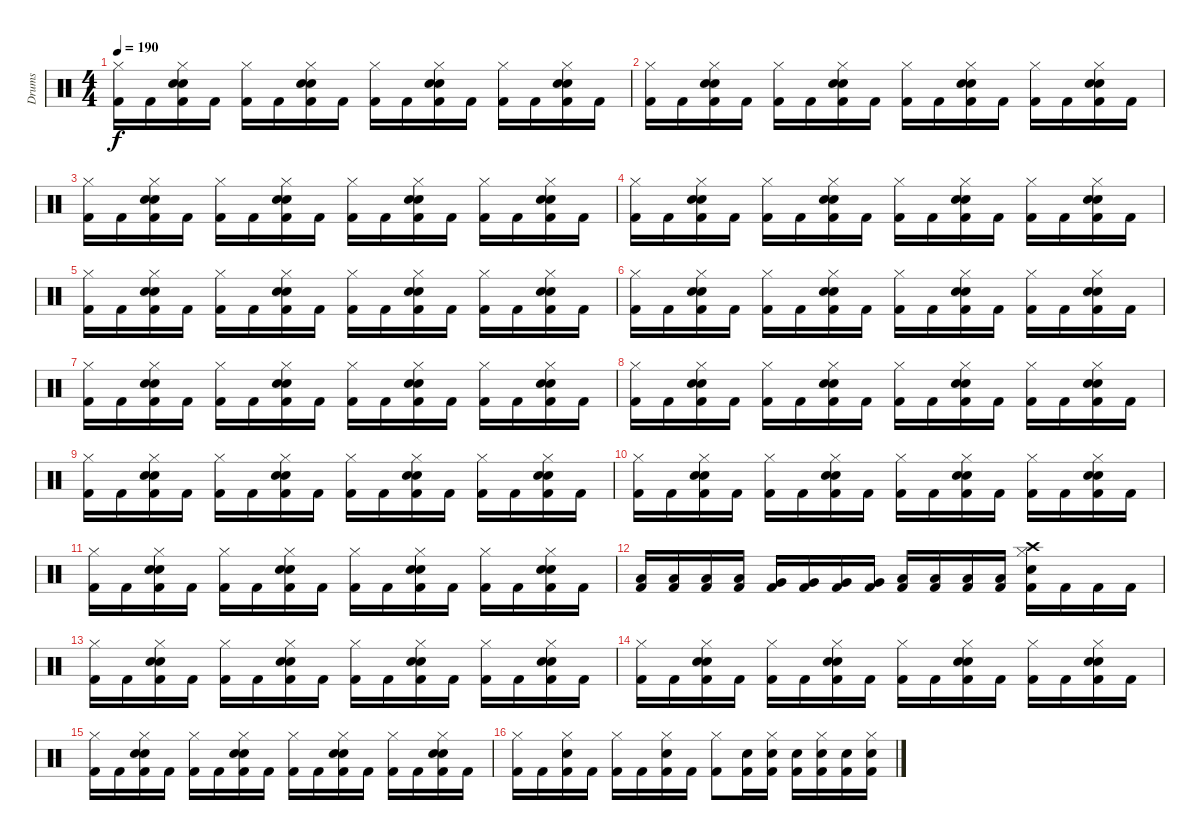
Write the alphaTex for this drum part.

\track ("Drums" "Drums") {instrument percussion}
\staff {score}
\articulation defaults
\ts (4 4)
\tempo 190
\clef neutral
\ks c
("Hi-Hat (closed)" "Kick (hit) 2").16{dy f} "Kick (hit) 2".16 ("Snare (hit) 2" "Hi-Hat (closed)" "Snare (hit) 2" "Kick (hit) 2").16 "Kick (hit) 2".16 ("Hi-Hat (closed)" "Kick (hit) 2").16 "Kick (hit) 2".16 ("Snare (hit) 2" "Hi-Hat (closed)" "Snare (hit) 2" "Kick (hit) 2").16 "Kick (hit) 2".16 ("Hi-Hat (closed)" "Kick (hit) 2").16 "Kick (hit) 2".16 ("Snare (hit) 2" "Hi-Hat (closed)" "Snare (hit) 2" "Kick (hit) 2").16 "Kick (hit) 2".16 ("Hi-Hat (closed)" "Kick (hit) 2").16 "Kick (hit) 2".16 ("Snare (hit) 2" "Hi-Hat (closed)" "Snare (hit) 2" "Kick (hit) 2").16 "Kick (hit) 2".16 |
("Hi-Hat (closed)" "Kick (hit) 2").16 "Kick (hit) 2".16 ("Snare (hit) 2" "Hi-Hat (closed)" "Snare (hit) 2" "Kick (hit) 2").16 "Kick (hit) 2".16 ("Hi-Hat (closed)" "Kick (hit) 2").16 "Kick (hit) 2".16 ("Snare (hit) 2" "Hi-Hat (closed)" "Snare (hit) 2" "Kick (hit) 2").16 "Kick (hit) 2".16 ("Hi-Hat (closed)" "Kick (hit) 2").16 "Kick (hit) 2".16 ("Snare (hit) 2" "Hi-Hat (closed)" "Snare (hit) 2" "Kick (hit) 2").16 "Kick (hit) 2".16 ("Hi-Hat (closed)" "Kick (hit) 2").16 "Kick (hit) 2".16 ("Snare (hit) 2" "Hi-Hat (closed)" "Snare (hit) 2" "Kick (hit) 2").16 "Kick (hit) 2".16 |
("Hi-Hat (closed)" "Kick (hit) 2").16 "Kick (hit) 2".16 ("Snare (hit) 2" "Hi-Hat (closed)" "Snare (hit) 2" "Kick (hit) 2").16 "Kick (hit) 2".16 ("Hi-Hat (closed)" "Kick (hit) 2").16 "Kick (hit) 2".16 ("Snare (hit) 2" "Hi-Hat (closed)" "Snare (hit) 2" "Kick (hit) 2").16 "Kick (hit) 2".16 ("Hi-Hat (closed)" "Kick (hit) 2").16 "Kick (hit) 2".16 ("Snare (hit) 2" "Hi-Hat (closed)" "Snare (hit) 2" "Kick (hit) 2").16 "Kick (hit) 2".16 ("Hi-Hat (closed)" "Kick (hit) 2").16 "Kick (hit) 2".16 ("Snare (hit) 2" "Hi-Hat (closed)" "Snare (hit) 2" "Kick (hit) 2").16 "Kick (hit) 2".16 |
("Hi-Hat (closed)" "Kick (hit) 2").16 "Kick (hit) 2".16 ("Snare (hit) 2" "Hi-Hat (closed)" "Snare (hit) 2" "Kick (hit) 2").16 "Kick (hit) 2".16 ("Hi-Hat (closed)" "Kick (hit) 2").16 "Kick (hit) 2".16 ("Snare (hit) 2" "Hi-Hat (closed)" "Snare (hit) 2" "Kick (hit) 2").16 "Kick (hit) 2".16 ("Hi-Hat (closed)" "Kick (hit) 2").16 "Kick (hit) 2".16 ("Snare (hit) 2" "Hi-Hat (closed)" "Snare (hit) 2" "Kick (hit) 2").16 "Kick (hit) 2".16 ("Hi-Hat (closed)" "Kick (hit) 2").16 "Kick (hit) 2".16 ("Snare (hit) 2" "Hi-Hat (closed)" "Snare (hit) 2" "Kick (hit) 2").16 "Kick (hit) 2".16 |
("Hi-Hat (closed)" "Kick (hit) 2").16 "Kick (hit) 2".16 ("Snare (hit) 2" "Hi-Hat (closed)" "Snare (hit) 2" "Kick (hit) 2").16 "Kick (hit) 2".16 ("Hi-Hat (closed)" "Kick (hit) 2").16 "Kick (hit) 2".16 ("Snare (hit) 2" "Hi-Hat (closed)" "Snare (hit) 2" "Kick (hit) 2").16 "Kick (hit) 2".16 ("Hi-Hat (closed)" "Kick (hit) 2").16 "Kick (hit) 2".16 ("Snare (hit) 2" "Hi-Hat (closed)" "Snare (hit) 2" "Kick (hit) 2").16 "Kick (hit) 2".16 ("Hi-Hat (closed)" "Kick (hit) 2").16 "Kick (hit) 2".16 ("Snare (hit) 2" "Hi-Hat (closed)" "Snare (hit) 2" "Kick (hit) 2").16 "Kick (hit) 2".16 |
("Hi-Hat (closed)" "Kick (hit) 2").16 "Kick (hit) 2".16 ("Snare (hit) 2" "Hi-Hat (closed)" "Snare (hit) 2" "Kick (hit) 2").16 "Kick (hit) 2".16 ("Hi-Hat (closed)" "Kick (hit) 2").16 "Kick (hit) 2".16 ("Snare (hit) 2" "Hi-Hat (closed)" "Snare (hit) 2" "Kick (hit) 2").16 "Kick (hit) 2".16 ("Hi-Hat (closed)" "Kick (hit) 2").16 "Kick (hit) 2".16 ("Snare (hit) 2" "Hi-Hat (closed)" "Snare (hit) 2" "Kick (hit) 2").16 "Kick (hit) 2".16 ("Hi-Hat (closed)" "Kick (hit) 2").16 "Kick (hit) 2".16 ("Snare (hit) 2" "Hi-Hat (closed)" "Snare (hit) 2" "Kick (hit) 2").16 "Kick (hit) 2".16 |
("Hi-Hat (closed)" "Kick (hit) 2").16 "Kick (hit) 2".16 ("Snare (hit) 2" "Hi-Hat (closed)" "Snare (hit) 2" "Kick (hit) 2").16 "Kick (hit) 2".16 ("Hi-Hat (closed)" "Kick (hit) 2").16 "Kick (hit) 2".16 ("Snare (hit) 2" "Hi-Hat (closed)" "Snare (hit) 2" "Kick (hit) 2").16 "Kick (hit) 2".16 ("Hi-Hat (closed)" "Kick (hit) 2").16 "Kick (hit) 2".16 ("Snare (hit) 2" "Hi-Hat (closed)" "Snare (hit) 2" "Kick (hit) 2").16 "Kick (hit) 2".16 ("Hi-Hat (closed)" "Kick (hit) 2").16 "Kick (hit) 2".16 ("Snare (hit) 2" "Hi-Hat (closed)" "Snare (hit) 2" "Kick (hit) 2").16 "Kick (hit) 2".16 |
("Hi-Hat (closed)" "Kick (hit) 2").16 "Kick (hit) 2".16 ("Snare (hit) 2" "Hi-Hat (closed)" "Snare (hit) 2" "Kick (hit) 2").16 "Kick (hit) 2".16 ("Hi-Hat (closed)" "Kick (hit) 2").16 "Kick (hit) 2".16 ("Snare (hit) 2" "Hi-Hat (closed)" "Snare (hit) 2" "Kick (hit) 2").16 "Kick (hit) 2".16 ("Hi-Hat (closed)" "Kick (hit) 2").16 "Kick (hit) 2".16 ("Snare (hit) 2" "Hi-Hat (closed)" "Snare (hit) 2" "Kick (hit) 2").16 "Kick (hit) 2".16 ("Hi-Hat (closed)" "Kick (hit) 2").16 "Kick (hit) 2".16 ("Snare (hit) 2" "Hi-Hat (closed)" "Snare (hit) 2" "Kick (hit) 2").16 "Kick (hit) 2".16 |
("Hi-Hat (closed)" "Kick (hit) 2").16 "Kick (hit) 2".16 ("Snare (hit) 2" "Hi-Hat (closed)" "Snare (hit) 2" "Kick (hit) 2").16 "Kick (hit) 2".16 ("Hi-Hat (closed)" "Kick (hit) 2").16 "Kick (hit) 2".16 ("Snare (hit) 2" "Hi-Hat (closed)" "Snare (hit) 2" "Kick (hit) 2").16 "Kick (hit) 2".16 ("Hi-Hat (closed)" "Kick (hit) 2").16 "Kick (hit) 2".16 ("Snare (hit) 2" "Hi-Hat (closed)" "Snare (hit) 2" "Kick (hit) 2").16 "Kick (hit) 2".16 ("Hi-Hat (closed)" "Kick (hit) 2").16 "Kick (hit) 2".16 ("Snare (hit) 2" "Hi-Hat (closed)" "Snare (hit) 2" "Kick (hit) 2").16 "Kick (hit) 2".16 |
("Hi-Hat (closed)" "Kick (hit) 2").16 "Kick (hit) 2".16 ("Snare (hit) 2" "Hi-Hat (closed)" "Snare (hit) 2" "Kick (hit) 2").16 "Kick (hit) 2".16 ("Hi-Hat (closed)" "Kick (hit) 2").16 "Kick (hit) 2".16 ("Snare (hit) 2" "Hi-Hat (closed)" "Snare (hit) 2" "Kick (hit) 2").16 "Kick (hit) 2".16 ("Hi-Hat (closed)" "Kick (hit) 2").16 "Kick (hit) 2".16 ("Snare (hit) 2" "Hi-Hat (closed)" "Snare (hit) 2" "Kick (hit) 2").16 "Kick (hit) 2".16 ("Hi-Hat (closed)" "Kick (hit) 2").16 "Kick (hit) 2".16 ("Snare (hit) 2" "Hi-Hat (closed)" "Snare (hit) 2" "Kick (hit) 2").16 "Kick (hit) 2".16 |
("Hi-Hat (closed)" "Kick (hit) 2").16 "Kick (hit) 2".16 ("Snare (hit) 2" "Hi-Hat (closed)" "Snare (hit) 2" "Kick (hit) 2").16 "Kick (hit) 2".16 ("Hi-Hat (closed)" "Kick (hit) 2").16 "Kick (hit) 2".16 ("Snare (hit) 2" "Hi-Hat (closed)" "Snare (hit) 2" "Kick (hit) 2").16 "Kick (hit) 2".16 ("Hi-Hat (closed)" "Kick (hit) 2").16 "Kick (hit) 2".16 ("Snare (hit) 2" "Hi-Hat (closed)" "Snare (hit) 2" "Kick (hit) 2").16 "Kick (hit) 2".16 ("Hi-Hat (closed)" "Kick (hit) 2").16 "Kick (hit) 2".16 ("Snare (hit) 2" "Hi-Hat (closed)" "Snare (hit) 2" "Kick (hit) 2").16 "Kick (hit) 2".16 |
("Low Tom (hit)" "Kick (hit) 2").16 ("Low Tom (hit)" "Kick (hit) 2").16 ("Low Tom (hit)" "Kick (hit) 2").16 ("Low Tom (hit)" "Kick (hit) 2").16 ("Very Low Tom (hit)" "Kick (hit) 2").16 ("Very Low Tom (hit)" "Kick (hit) 2").16 ("Very Low Tom (hit)" "Kick (hit) 2").16 ("Very Low Tom (hit)" "Kick (hit) 2").16 ("Low Floor Tom (hit)" "Kick (hit) 2").16 ("Low Floor Tom (hit)" "Kick (hit) 2").16 ("Low Floor Tom (hit)" "Kick (hit) 2").16 ("Low Floor Tom (hit)" "Kick (hit) 2").16 ("Crash high (hit)" "Hi-Hat (closed)" "Snare (hit) 2" "Kick (hit) 2").16 "Kick (hit) 2".16 "Kick (hit) 2".16 "Kick (hit) 2".16 |
("Hi-Hat (closed)" "Kick (hit) 2").16 "Kick (hit) 2".16 ("Snare (hit) 2" "Hi-Hat (closed)" "Snare (hit) 2" "Kick (hit) 2").16 "Kick (hit) 2".16 ("Hi-Hat (closed)" "Kick (hit) 2").16 "Kick (hit) 2".16 ("Snare (hit) 2" "Hi-Hat (closed)" "Snare (hit) 2" "Kick (hit) 2").16 "Kick (hit) 2".16 ("Hi-Hat (closed)" "Kick (hit) 2").16 "Kick (hit) 2".16 ("Snare (hit) 2" "Hi-Hat (closed)" "Snare (hit) 2" "Kick (hit) 2").16 "Kick (hit) 2".16 ("Hi-Hat (closed)" "Kick (hit) 2").16 "Kick (hit) 2".16 ("Snare (hit) 2" "Hi-Hat (closed)" "Snare (hit) 2" "Kick (hit) 2").16 "Kick (hit) 2".16 |
("Hi-Hat (closed)" "Kick (hit) 2").16 "Kick (hit) 2".16 ("Snare (hit) 2" "Hi-Hat (closed)" "Snare (hit) 2" "Kick (hit) 2").16 "Kick (hit) 2".16 ("Hi-Hat (closed)" "Kick (hit) 2").16 "Kick (hit) 2".16 ("Snare (hit) 2" "Hi-Hat (closed)" "Snare (hit) 2" "Kick (hit) 2").16 "Kick (hit) 2".16 ("Hi-Hat (closed)" "Kick (hit) 2").16 "Kick (hit) 2".16 ("Snare (hit) 2" "Hi-Hat (closed)" "Snare (hit) 2" "Kick (hit) 2").16 "Kick (hit) 2".16 ("Hi-Hat (closed)" "Kick (hit) 2").16 "Kick (hit) 2".16 ("Snare (hit) 2" "Hi-Hat (closed)" "Snare (hit) 2" "Kick (hit) 2").16 "Kick (hit) 2".16 |
("Hi-Hat (closed)" "Kick (hit) 2").16 "Kick (hit) 2".16 ("Snare (hit) 2" "Hi-Hat (closed)" "Snare (hit) 2" "Kick (hit) 2").16 "Kick (hit) 2".16 ("Hi-Hat (closed)" "Kick (hit) 2").16 "Kick (hit) 2".16 ("Snare (hit) 2" "Hi-Hat (closed)" "Snare (hit) 2" "Kick (hit) 2").16 "Kick (hit) 2".16 ("Hi-Hat (closed)" "Kick (hit) 2").16 "Kick (hit) 2".16 ("Snare (hit) 2" "Hi-Hat (closed)" "Snare (hit) 2" "Kick (hit) 2").16 "Kick (hit) 2".16 ("Hi-Hat (closed)" "Kick (hit) 2").16 "Kick (hit) 2".16 ("Snare (hit) 2" "Hi-Hat (closed)" "Snare (hit) 2" "Kick (hit) 2").16 "Kick (hit) 2".16 |
("Hi-Hat (closed)" "Kick (hit) 2").16 "Kick (hit) 2".16 ("Snare (hit) 2" "Hi-Hat (closed)" "Kick (hit) 2").16 "Kick (hit) 2".16 ("Hi-Hat (closed)" "Kick (hit) 2").16 "Kick (hit) 2".16 ("Snare (hit) 2" "Hi-Hat (closed)" "Kick (hit) 2").16 "Kick (hit) 2".16 ("Hi-Hat (closed)" "Kick (hit) 2").8 ("Snare (hit) 2" "Kick (hit) 2").16 ("Hi-Hat (closed)" "Snare (hit) 2" "Kick (hit) 2").16 ("Snare (hit) 2" "Kick (hit) 2").16 ("Hi-Hat (closed)" "Snare (hit) 2" "Kick (hit) 2").16 ("Snare (hit) 2" "Kick (hit) 2").16 ("Hi-Hat (closed)" "Snare (hit) 2" "Kick (hit) 2").16
